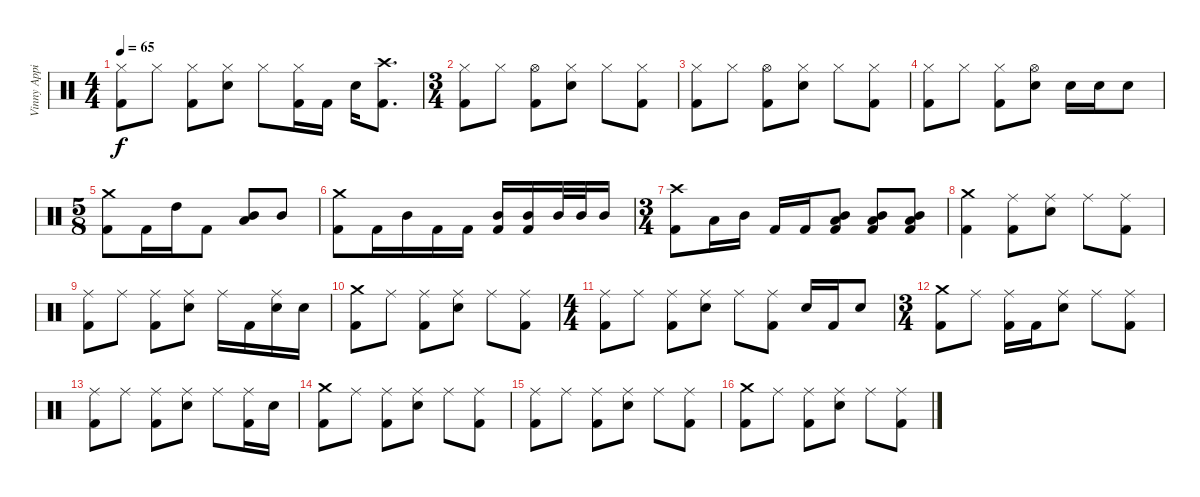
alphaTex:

\track ("Vinny Appice" "Vinny Appi") {instrument percussion}
\staff {score}
\articulation defaults
\ts (4 4)
\tempo 65
\clef neutral
\ks c
("Hi-Hat (closed)" "Kick (hit) 2").8{dy f} "Hi-Hat (closed)".8 ("Hi-Hat (closed)" "Kick (hit) 2").8 ("Hi-Hat (closed)" "Snare (hit) 2").8 "Hi-Hat (closed)".8 ("Hi-Hat (closed)" "Kick (hit) 2").16 "Kick (hit) 2".16 "Snare (hit) 2".16 ("Crash high (hit)" "Kick (hit) 2").8{d} |
\ts (3 4)
("Hi-Hat (closed)" "Kick (hit) 2").8 "Hi-Hat (closed)".8 ("Hi-Hat (open)" "Kick (hit) 2").8 ("Hi-Hat (closed)" "Snare (hit) 2").8 "Hi-Hat (closed)".8 ("Hi-Hat (closed)" "Kick (hit) 2").8 |
("Hi-Hat (closed)" "Kick (hit) 2").8 "Hi-Hat (closed)".8 ("Hi-Hat (open)" "Kick (hit) 2").8 ("Hi-Hat (closed)" "Snare (hit) 2").8 "Hi-Hat (closed)".8 ("Hi-Hat (closed)" "Kick (hit) 2").8 |
("Hi-Hat (closed)" "Kick (hit) 2").8 "Hi-Hat (closed)".8 ("Hi-Hat (closed)" "Kick (hit) 2").8 ("Hi-Hat (open)" "Snare (hit) 2").8 "Snare (hit) 2".16 "Snare (hit) 2".16 "Snare (hit) 2".8 |
\ts (5 8)
("Crash medium (hit)" "Kick (hit) 2").8 "Kick (hit) 2".16 "High Tom (hit)".16 "Kick (hit) 2".8 ("Mid Tom (hit)" "Low Tom (hit)").8 "Mid Tom (hit)".8 |
("Crash medium (hit)" "Kick (hit) 2").8 "Kick (hit) 2".16 "Mid Tom (hit)".16 "Kick (hit) 2".16 "Kick (hit) 2".16 ("Mid Tom (hit)" "Kick (hit) 2").16 ("Mid Tom (hit)" "Kick (hit) 2").16 "Mid Tom (hit)".32 "Mid Tom (hit)".32 "Mid Tom (hit)".16 |
\ts (3 4)
("Crash high (hit)" "Kick (hit) 2").8 "Low Tom (hit)".16 "Mid Tom (hit)".16 "Kick (hit) 2".16 "Kick (hit) 2".16 ("Mid Tom (hit)" "Low Tom (hit)" "Kick (hit) 2").8 ("Mid Tom (hit)" "Low Tom (hit)" "Kick (hit) 2").8 ("Mid Tom (hit)" "Low Tom (hit)" "Kick (hit) 2").8 |
("Crash medium (hit)" "Kick (hit) 2").4 ("Ride (middle)" "Kick (hit) 2").8 ("Ride (middle)" "Snare (hit) 2").8 "Ride (middle)".8 ("Ride (middle)" "Kick (hit) 2").8 |
("Ride (middle)" "Kick (hit) 2").8 "Ride (middle)".8 ("Ride (middle)" "Kick (hit) 2").8 ("Ride (middle)" "Snare (hit) 2").8 "Ride (middle)".16 "Kick (hit) 2".16 ("Ride (middle)" "Snare (hit) 2").16 "Snare (hit) 2".16 |
("Crash medium (hit)" "Kick (hit) 2").8 "Ride (middle)".8 ("Ride (middle)" "Kick (hit) 2").8 ("Ride (middle)" "Snare (hit) 2").8 "Ride (middle)".8 ("Ride (middle)" "Kick (hit) 2").8 |
\ts (4 4)
("Ride (middle)" "Kick (hit) 2").8 "Ride (middle)".8 ("Ride (middle)" "Kick (hit) 2").8 ("Ride (middle)" "Snare (hit) 2").8 "Ride (middle)".8 ("Ride (middle)" "Kick (hit) 2").8 "Snare (hit) 2".16 "Kick (hit) 2".16 "Snare (hit) 2".8 |
\ts (3 4)
("Crash medium (hit)" "Kick (hit) 2").8 "Ride (middle)".8 ("Ride (middle)" "Kick (hit) 2").16 "Kick (hit) 2".16 ("Ride (middle)" "Snare (hit) 2").8 "Ride (middle)".8 ("Ride (middle)" "Kick (hit) 2").8 |
("Ride (middle)" "Kick (hit) 2").8 "Ride (middle)".8 ("Ride (middle)" "Kick (hit) 2").8 ("Ride (middle)" "Snare (hit) 2").8 "Ride (middle)".8 ("Ride (middle)" "Kick (hit) 2").16 "Snare (hit) 2".16 |
("Crash medium (hit)" "Kick (hit) 2").8 "Ride (middle)".8 ("Ride (middle)" "Kick (hit) 2").8 ("Ride (middle)" "Snare (hit) 2").8 "Ride (middle)".8 ("Ride (middle)" "Kick (hit) 2").8 |
("Ride (middle)" "Kick (hit) 2").8 "Ride (middle)".8 ("Ride (middle)" "Kick (hit) 2").8 ("Ride (middle)" "Snare (hit) 2").8 "Ride (middle)".8 ("Ride (middle)" "Kick (hit) 2").8 |
("Crash medium (hit)" "Kick (hit) 2").8 "Ride (middle)".8 ("Ride (middle)" "Kick (hit) 2").8 ("Ride (middle)" "Snare (hit) 2").8 "Ride (middle)".8 ("Ride (middle)" "Kick (hit) 2").8
